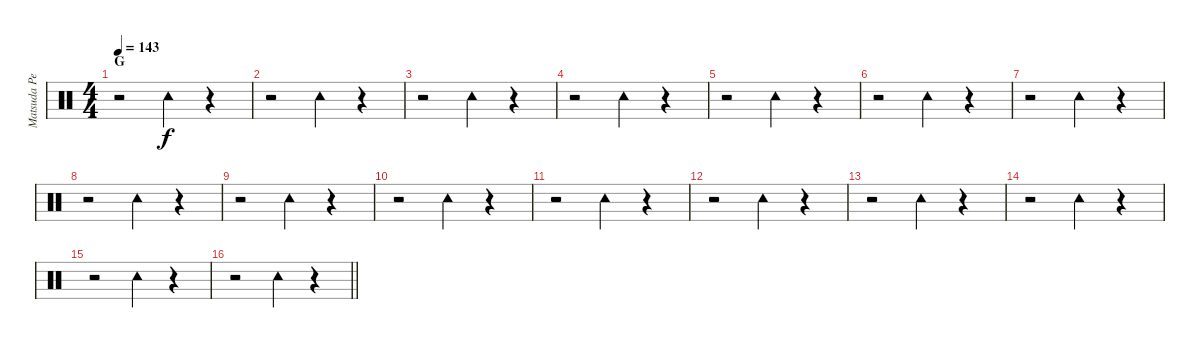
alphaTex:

\track ("Matsuda Percussion" "Matsuda Pe") {instrument percussion}
\staff {score}
\articulation defaults
\ts (4 4)
\section ("" "G")
\tempo 143
\clef neutral
\ks c
r.2{dy f} "Tambourine (hit)".4 r.4 |
r.2 "Tambourine (hit)".4 r.4 |
r.2 "Tambourine (hit)".4 r.4 |
r.2 "Tambourine (hit)".4 r.4 |
r.2 "Tambourine (hit)".4 r.4 |
r.2 "Tambourine (hit)".4 r.4 |
r.2 "Tambourine (hit)".4 r.4 |
r.2 "Tambourine (hit)".4 r.4 |
r.2 "Tambourine (hit)".4 r.4 |
r.2 "Tambourine (hit)".4 r.4 |
r.2 "Tambourine (hit)".4 r.4 |
r.2 "Tambourine (hit)".4 r.4 |
r.2 "Tambourine (hit)".4 r.4 |
r.2 "Tambourine (hit)".4 r.4 |
r.2 "Tambourine (hit)".4 r.4 |
\barLineRight lightlight
r.2 "Tambourine (hit)".4 r.4
